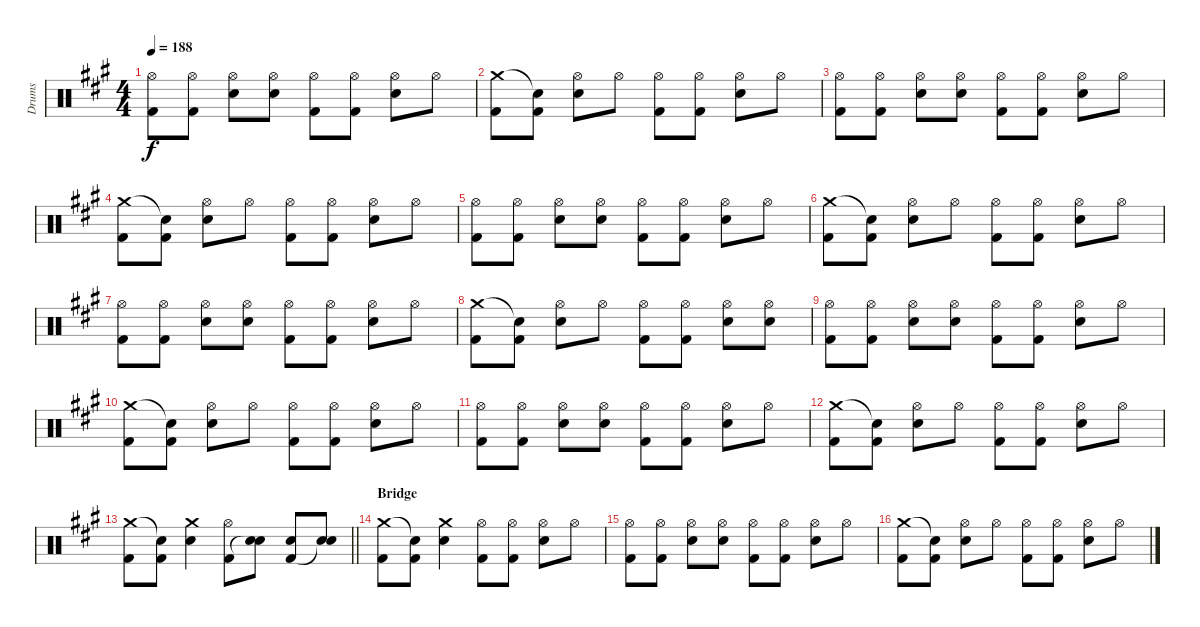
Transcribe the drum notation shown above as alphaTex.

\track ("Drums" "Drums") {instrument percussion}
\staff {score}
\articulation defaults
\ts (4 4)
\tempo 188
\clef neutral
\ks a
("Hi-Hat (open)" "Kick (hit) 2").8{dy f} ("Hi-Hat (open)" "Kick (hit) 2").8 ("Hi-Hat (open)" "Electric Snare (hit)").8 ("Hi-Hat (open)" "Electric Snare (hit)").8 ("Hi-Hat (open)" "Kick (hit) 2").8 ("Hi-Hat (open)" "Kick (hit) 2").8 ("Hi-Hat (open)" "Electric Snare (hit)").8 "Hi-Hat (open)".8 |
("Crash medium (hit)" "Kick (hit) 2").8 ("Snare (hit)"{t} "Kick (hit) 2").8 ("Hi-Hat (open)" "Electric Snare (hit)").8 "Hi-Hat (open)".8 ("Hi-Hat (open)" "Kick (hit) 2").8 ("Hi-Hat (open)" "Kick (hit) 2").8 ("Hi-Hat (open)" "Electric Snare (hit)").8 "Hi-Hat (open)".8 |
("Hi-Hat (open)" "Kick (hit) 2").8 ("Hi-Hat (open)" "Kick (hit) 2").8 ("Hi-Hat (open)" "Electric Snare (hit)").8 ("Hi-Hat (open)" "Electric Snare (hit)").8 ("Hi-Hat (open)" "Kick (hit) 2").8 ("Hi-Hat (open)" "Kick (hit) 2").8 ("Hi-Hat (open)" "Electric Snare (hit)").8 "Hi-Hat (open)".8 |
("Crash medium (hit)" "Kick (hit) 2").8 ("Snare (hit)"{t} "Kick (hit) 2").8 ("Hi-Hat (open)" "Electric Snare (hit)").8 "Hi-Hat (open)".8 ("Hi-Hat (open)" "Kick (hit) 2").8 ("Hi-Hat (open)" "Kick (hit) 2").8 ("Hi-Hat (open)" "Electric Snare (hit)").8 "Hi-Hat (open)".8 |
("Hi-Hat (open)" "Kick (hit) 2").8 ("Hi-Hat (open)" "Kick (hit) 2").8 ("Hi-Hat (open)" "Electric Snare (hit)").8 ("Hi-Hat (open)" "Electric Snare (hit)").8 ("Hi-Hat (open)" "Kick (hit) 2").8 ("Hi-Hat (open)" "Kick (hit) 2").8 ("Hi-Hat (open)" "Electric Snare (hit)").8 "Hi-Hat (open)".8 |
("Crash medium (hit)" "Kick (hit) 2").8 ("Snare (hit)"{t} "Kick (hit) 2").8 ("Hi-Hat (open)" "Electric Snare (hit)").8 "Hi-Hat (open)".8 ("Hi-Hat (open)" "Kick (hit) 2").8 ("Hi-Hat (open)" "Kick (hit) 2").8 ("Hi-Hat (open)" "Electric Snare (hit)").8 "Hi-Hat (open)".8 |
("Hi-Hat (open)" "Kick (hit) 2").8 ("Hi-Hat (open)" "Kick (hit) 2").8 ("Hi-Hat (open)" "Electric Snare (hit)").8 ("Hi-Hat (open)" "Electric Snare (hit)").8 ("Hi-Hat (open)" "Kick (hit) 2").8 ("Hi-Hat (open)" "Kick (hit) 2").8 ("Hi-Hat (open)" "Electric Snare (hit)").8 "Hi-Hat (open)".8 |
("Crash medium (hit)" "Kick (hit) 2").8 ("Snare (hit)"{t} "Kick (hit) 2").8 ("Hi-Hat (open)" "Electric Snare (hit)").8 "Hi-Hat (open)".8 ("Hi-Hat (open)" "Kick (hit) 2").8 ("Hi-Hat (open)" "Kick (hit) 2").8 ("Hi-Hat (open)" "Electric Snare (hit)").8 ("Hi-Hat (open)" "Electric Snare (hit)").8 |
("Hi-Hat (open)" "Kick (hit) 2").8 ("Hi-Hat (open)" "Kick (hit) 2").8 ("Hi-Hat (open)" "Electric Snare (hit)").8 ("Hi-Hat (open)" "Electric Snare (hit)").8 ("Hi-Hat (open)" "Kick (hit) 2").8 ("Hi-Hat (open)" "Kick (hit) 2").8 ("Hi-Hat (open)" "Electric Snare (hit)").8 "Hi-Hat (open)".8 |
("Crash medium (hit)" "Kick (hit) 2").8 ("Snare (hit)"{t} "Kick (hit) 2").8 ("Hi-Hat (open)" "Electric Snare (hit)").8 "Hi-Hat (open)".8 ("Hi-Hat (open)" "Kick (hit) 2").8 ("Hi-Hat (open)" "Kick (hit) 2").8 ("Hi-Hat (open)" "Electric Snare (hit)").8 "Hi-Hat (open)".8 |
("Hi-Hat (open)" "Kick (hit) 2").8 ("Hi-Hat (open)" "Kick (hit) 2").8 ("Hi-Hat (open)" "Electric Snare (hit)").8 ("Hi-Hat (open)" "Electric Snare (hit)").8 ("Hi-Hat (open)" "Kick (hit) 2").8 ("Hi-Hat (open)" "Kick (hit) 2").8 ("Hi-Hat (open)" "Electric Snare (hit)").8 "Hi-Hat (open)".8 |
("Crash medium (hit)" "Kick (hit) 2").8 ("Snare (hit)"{t} "Kick (hit) 2").8 ("Hi-Hat (open)" "Electric Snare (hit)").8 "Hi-Hat (open)".8 ("Hi-Hat (open)" "Kick (hit) 2").8 ("Hi-Hat (open)" "Kick (hit) 2").8 ("Hi-Hat (open)" "Electric Snare (hit)").8 "Hi-Hat (open)".8 |
\barLineRight lightlight
("Crash medium (hit)" "Kick (hit) 2").8 ("Snare (hit)"{t} "Kick (hit) 2").8 ("Crash medium (hit)" "Electric Snare (hit)").4 ("Hi-Hat (open)" "Kick (hit) 2").8 ("Electric Snare (hit)" "Snare (hit)"{t}).8 ("Electric Snare (hit)" "Kick (hit) 2").8 ("Electric Snare (hit)" "Snare (hit)"{t}).8 |
\section ("" "Bridge")
("Crash medium (hit)" "Kick (hit) 2").8 ("Snare (hit)"{t} "Kick (hit) 2").8 ("Crash medium (hit)" "Electric Snare (hit)").4 ("Hi-Hat (open)" "Kick (hit) 2").8 ("Hi-Hat (open)" "Kick (hit) 2").8 ("Hi-Hat (open)" "Electric Snare (hit)").8 "Hi-Hat (open)".8 |
("Hi-Hat (open)" "Kick (hit) 2").8 ("Hi-Hat (open)" "Kick (hit) 2").8 ("Hi-Hat (open)" "Electric Snare (hit)").8 ("Hi-Hat (open)" "Electric Snare (hit)").8 ("Hi-Hat (open)" "Kick (hit) 2").8 ("Hi-Hat (open)" "Kick (hit) 2").8 ("Hi-Hat (open)" "Electric Snare (hit)").8 "Hi-Hat (open)".8 |
("Crash medium (hit)" "Kick (hit) 2").8 ("Snare (hit)"{t} "Kick (hit) 2").8 ("Hi-Hat (open)" "Electric Snare (hit)").8 "Hi-Hat (open)".8 ("Hi-Hat (open)" "Kick (hit) 2").8 ("Hi-Hat (open)" "Kick (hit) 2").8 ("Hi-Hat (open)" "Electric Snare (hit)").8 "Hi-Hat (open)".8
